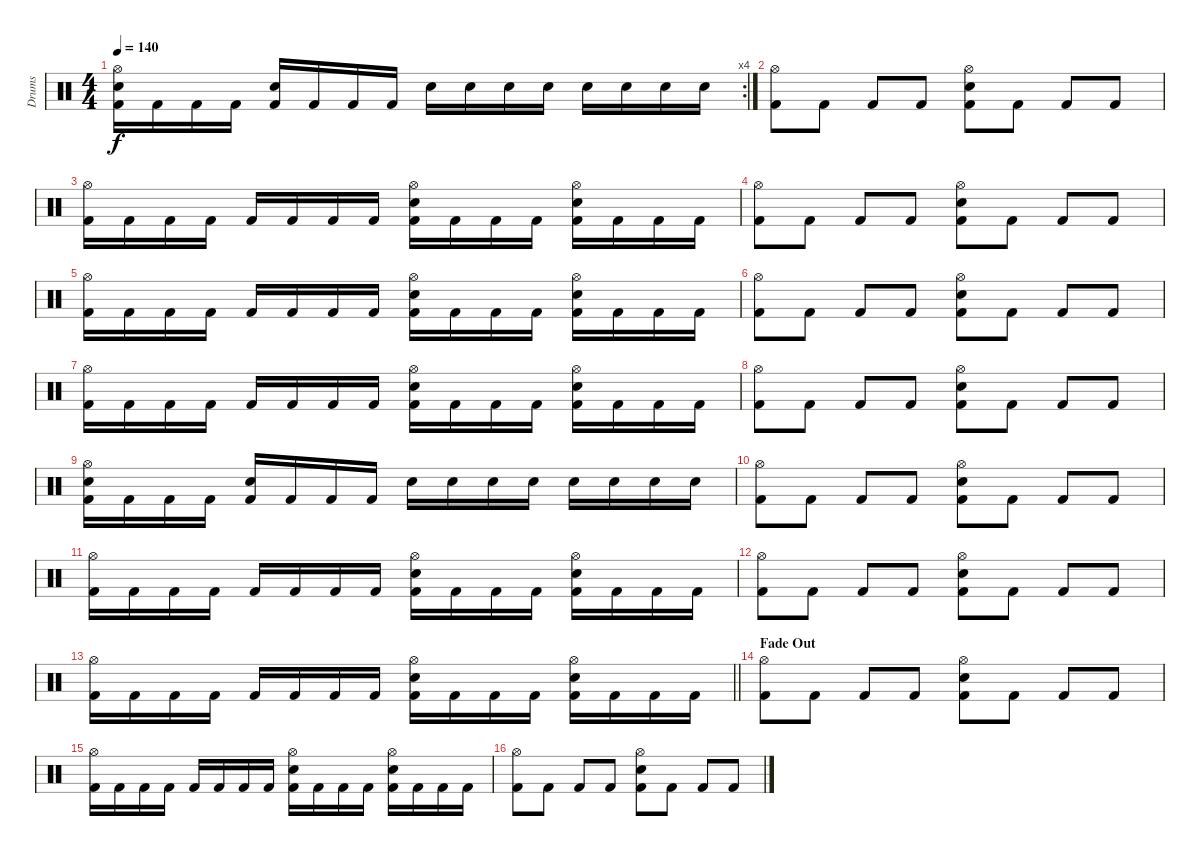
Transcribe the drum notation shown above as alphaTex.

\track ("Drums" "Drums") {instrument percussion}
\staff {score}
\articulation defaults
\rc 4
\ts (4 4)
\tempo 140
\clef neutral
\ks c
("Hi-Hat (open)" "Snare (hit) 2" "Kick (hit) 2").16{dy f} "Kick (hit) 2".16 "Kick (hit) 2".16 "Kick (hit) 2".16 ("Snare (hit) 2" "Kick (hit) 2").16 "Kick (hit) 2".16 "Kick (hit) 2".16 "Kick (hit) 2".16 "Snare (hit) 2".16 "Snare (hit) 2".16 "Snare (hit) 2".16 "Snare (hit) 2".16 "Snare (hit) 2".16 "Snare (hit) 2".16 "Snare (hit) 2".16 "Snare (hit) 2".16 |
("Hi-Hat (open)" "Kick (hit) 2").8 "Kick (hit) 2".8 "Kick (hit) 2".8 "Kick (hit) 2".8 ("Hi-Hat (open)" "Snare (hit) 2" "Kick (hit) 2").8 "Kick (hit) 2".8 "Kick (hit) 2".8 "Kick (hit) 2".8 |
("Hi-Hat (open)" "Kick (hit) 2").16 "Kick (hit) 2".16 "Kick (hit) 2".16 "Kick (hit) 2".16 "Kick (hit) 2".16 "Kick (hit) 2".16 "Kick (hit) 2".16 "Kick (hit) 2".16 ("Hi-Hat (open)" "Snare (hit) 2" "Kick (hit) 2").16 "Kick (hit) 2".16 "Kick (hit) 2".16 "Kick (hit) 2".16 ("Hi-Hat (open)" "Snare (hit) 2" "Kick (hit) 2").16 "Kick (hit) 2".16 "Kick (hit) 2".16 "Kick (hit) 2".16 |
("Hi-Hat (open)" "Kick (hit) 2").8 "Kick (hit) 2".8 "Kick (hit) 2".8 "Kick (hit) 2".8 ("Hi-Hat (open)" "Snare (hit) 2" "Kick (hit) 2").8 "Kick (hit) 2".8 "Kick (hit) 2".8 "Kick (hit) 2".8 |
("Hi-Hat (open)" "Kick (hit) 2").16 "Kick (hit) 2".16 "Kick (hit) 2".16 "Kick (hit) 2".16 "Kick (hit) 2".16 "Kick (hit) 2".16 "Kick (hit) 2".16 "Kick (hit) 2".16 ("Hi-Hat (open)" "Snare (hit) 2" "Kick (hit) 2").16 "Kick (hit) 2".16 "Kick (hit) 2".16 "Kick (hit) 2".16 ("Hi-Hat (open)" "Snare (hit) 2" "Kick (hit) 2").16 "Kick (hit) 2".16 "Kick (hit) 2".16 "Kick (hit) 2".16 |
("Hi-Hat (open)" "Kick (hit) 2").8 "Kick (hit) 2".8 "Kick (hit) 2".8 "Kick (hit) 2".8 ("Hi-Hat (open)" "Snare (hit) 2" "Kick (hit) 2").8 "Kick (hit) 2".8 "Kick (hit) 2".8 "Kick (hit) 2".8 |
("Hi-Hat (open)" "Kick (hit) 2").16 "Kick (hit) 2".16 "Kick (hit) 2".16 "Kick (hit) 2".16 "Kick (hit) 2".16 "Kick (hit) 2".16 "Kick (hit) 2".16 "Kick (hit) 2".16 ("Hi-Hat (open)" "Snare (hit) 2" "Kick (hit) 2").16 "Kick (hit) 2".16 "Kick (hit) 2".16 "Kick (hit) 2".16 ("Hi-Hat (open)" "Snare (hit) 2" "Kick (hit) 2").16 "Kick (hit) 2".16 "Kick (hit) 2".16 "Kick (hit) 2".16 |
("Hi-Hat (open)" "Kick (hit) 2").8 "Kick (hit) 2".8 "Kick (hit) 2".8 "Kick (hit) 2".8 ("Hi-Hat (open)" "Snare (hit) 2" "Kick (hit) 2").8 "Kick (hit) 2".8 "Kick (hit) 2".8 "Kick (hit) 2".8 |
("Hi-Hat (open)" "Snare (hit) 2" "Kick (hit) 2").16 "Kick (hit) 2".16 "Kick (hit) 2".16 "Kick (hit) 2".16 ("Snare (hit) 2" "Kick (hit) 2").16 "Kick (hit) 2".16 "Kick (hit) 2".16 "Kick (hit) 2".16 "Snare (hit) 2".16 "Snare (hit) 2".16 "Snare (hit) 2".16 "Snare (hit) 2".16 "Snare (hit) 2".16 "Snare (hit) 2".16 "Snare (hit) 2".16 "Snare (hit) 2".16 |
("Hi-Hat (open)" "Kick (hit) 2").8 "Kick (hit) 2".8 "Kick (hit) 2".8 "Kick (hit) 2".8 ("Hi-Hat (open)" "Snare (hit) 2" "Kick (hit) 2").8 "Kick (hit) 2".8 "Kick (hit) 2".8 "Kick (hit) 2".8 |
("Hi-Hat (open)" "Kick (hit) 2").16 "Kick (hit) 2".16 "Kick (hit) 2".16 "Kick (hit) 2".16 "Kick (hit) 2".16 "Kick (hit) 2".16 "Kick (hit) 2".16 "Kick (hit) 2".16 ("Hi-Hat (open)" "Snare (hit) 2" "Kick (hit) 2").16 "Kick (hit) 2".16 "Kick (hit) 2".16 "Kick (hit) 2".16 ("Hi-Hat (open)" "Snare (hit) 2" "Kick (hit) 2").16 "Kick (hit) 2".16 "Kick (hit) 2".16 "Kick (hit) 2".16 |
("Hi-Hat (open)" "Kick (hit) 2").8 "Kick (hit) 2".8 "Kick (hit) 2".8 "Kick (hit) 2".8 ("Hi-Hat (open)" "Snare (hit) 2" "Kick (hit) 2").8 "Kick (hit) 2".8 "Kick (hit) 2".8 "Kick (hit) 2".8 |
\barLineRight lightlight
("Hi-Hat (open)" "Kick (hit) 2").16 "Kick (hit) 2".16 "Kick (hit) 2".16 "Kick (hit) 2".16 "Kick (hit) 2".16 "Kick (hit) 2".16 "Kick (hit) 2".16 "Kick (hit) 2".16 ("Hi-Hat (open)" "Snare (hit) 2" "Kick (hit) 2").16 "Kick (hit) 2".16 "Kick (hit) 2".16 "Kick (hit) 2".16 ("Hi-Hat (open)" "Snare (hit) 2" "Kick (hit) 2").16 "Kick (hit) 2".16 "Kick (hit) 2".16 "Kick (hit) 2".16 |
\section ("" "Fade Out")
("Hi-Hat (open)" "Kick (hit) 2").8{volume 0} "Kick (hit) 2".8 "Kick (hit) 2".8 "Kick (hit) 2".8 ("Hi-Hat (open)" "Snare (hit) 2" "Kick (hit) 2").8 "Kick (hit) 2".8 "Kick (hit) 2".8 "Kick (hit) 2".8 |
("Hi-Hat (open)" "Kick (hit) 2").16 "Kick (hit) 2".16 "Kick (hit) 2".16 "Kick (hit) 2".16 "Kick (hit) 2".16 "Kick (hit) 2".16 "Kick (hit) 2".16 "Kick (hit) 2".16 ("Hi-Hat (open)" "Snare (hit) 2" "Kick (hit) 2").16 "Kick (hit) 2".16 "Kick (hit) 2".16 "Kick (hit) 2".16 ("Hi-Hat (open)" "Snare (hit) 2" "Kick (hit) 2").16 "Kick (hit) 2".16 "Kick (hit) 2".16 "Kick (hit) 2".16 |
("Hi-Hat (open)" "Kick (hit) 2").8 "Kick (hit) 2".8 "Kick (hit) 2".8 "Kick (hit) 2".8 ("Hi-Hat (open)" "Snare (hit) 2" "Kick (hit) 2").8 "Kick (hit) 2".8 "Kick (hit) 2".8 "Kick (hit) 2".8
